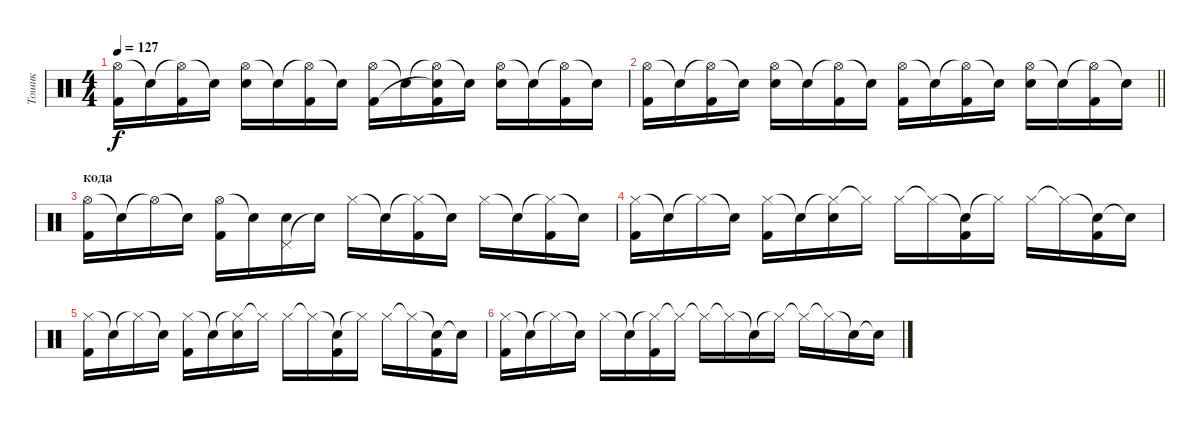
\track ("Тошик" "Тошик") {instrument percussion}
\staff {score}
\articulation defaults
\ts (4 4)
\tempo 127
\clef neutral
\ks c
("Hi-Hat (open)" "Kick (hit) 2").16{dy f} "Snare (hit)"{t}.16 ("Hi-Hat (open)"{t} "Kick (hit) 2").16 "Snare (hit)"{t}.16 ("Hi-Hat (open)" "Snare (hit) 2").16 "Snare (hit)"{t}.16 ("Hi-Hat (open)"{t} "Kick (hit) 2").16 "Snare (hit)"{t}.16 ("Hi-Hat (open)" "Kick (hit) 2").16 "Snare (hit)"{t}.16 ("Hi-Hat (open)"{t} "Snare (hit)"{t} "Kick (hit) 2").16 "Snare (hit)"{t}.16 ("Hi-Hat (open)" "Snare (hit) 2").16 "Snare (hit)"{t}.16 ("Hi-Hat (open)"{t} "Kick (hit) 2").16 "Snare (hit)"{t}.16 |
\barLineRight lightlight
("Hi-Hat (open)" "Kick (hit) 2").16 "Snare (hit)"{t}.16 ("Hi-Hat (open)"{t} "Kick (hit) 2").16 "Snare (hit)"{t}.16 ("Hi-Hat (open)" "Snare (hit) 2").16 "Snare (hit)"{t}.16 ("Hi-Hat (open)"{t} "Kick (hit) 2").16 "Snare (hit)"{t}.16 ("Hi-Hat (open)" "Kick (hit) 2").16 "Snare (hit)"{t}.16 ("Hi-Hat (open)"{t} "Kick (hit) 2").16 "Snare (hit)"{t}.16 ("Hi-Hat (open)" "Snare (hit) 2").16 "Snare (hit)"{t}.16 ("Hi-Hat (open)"{t} "Kick (hit) 2").16 "Snare (hit)"{t}.16 |
\section ("" "кода")
("Hi-Hat (open)" "Kick (hit) 2").16 "Snare (hit)"{t}.16 "Hi-Hat (open)"{t}.16 "Snare (hit)"{t}.16 ("Hi-Hat (open)" "Kick (hit) 2").16 "Snare (hit)"{t}.16 ("Pedal Hi-Hat (hit)" "Snare (hit) 2").16 "Snare (hit)"{t}.16 "Hi-Hat (closed)".16 "Snare (hit)"{t}.16 ("Hi-Hat (closed)"{t} "Kick (hit) 2").16 "Snare (hit)"{t}.16 "Hi-Hat (closed)".16 "Snare (hit)"{t}.16 ("Hi-Hat (closed)"{t} "Kick (hit) 2").16 "Snare (hit)"{t}.16 |
("Hi-Hat (closed)" "Kick (hit) 2").16 "Snare (hit)"{t}.16 "Hi-Hat (closed)"{t}.16 "Snare (hit)"{t}.16 ("Hi-Hat (closed)" "Kick (hit) 2").16 "Snare (hit)"{t}.16 ("Hi-Hat (closed)"{t} "Snare (hit) 2").16 "Hi-Hat (closed)"{t}.16 "Hi-Hat (closed)".16 "Hi-Hat (closed)"{t}.16 ("Snare (hit)"{t} "Kick (hit) 2").16 "Hi-Hat (closed)"{t}.16 "Hi-Hat (closed)".16 "Hi-Hat (closed)"{t}.16 ("Snare (hit)"{t} "Kick (hit) 2").16 "Snare (hit)"{t}.16 |
("Hi-Hat (closed)" "Kick (hit) 2").16 "Snare (hit)"{t}.16 "Hi-Hat (closed)"{t}.16 "Snare (hit)"{t}.16 ("Hi-Hat (closed)" "Kick (hit) 2").16 "Snare (hit)"{t}.16 ("Hi-Hat (closed)"{t} "Snare (hit) 2").16 "Hi-Hat (closed)"{t}.16 "Hi-Hat (closed)".16 "Hi-Hat (closed)"{t}.16 ("Snare (hit)"{t} "Kick (hit) 2").16 "Hi-Hat (closed)"{t}.16 "Hi-Hat (closed)".16 "Hi-Hat (closed)"{t}.16 ("Snare (hit)"{t} "Kick (hit) 2").16 "Snare (hit)"{t}.16 |
("Hi-Hat (closed)" "Kick (hit) 2").16 "Snare (hit)"{t}.16 "Hi-Hat (closed)"{t}.16 "Snare (hit)"{t}.16 "Hi-Hat (closed)".16 "Snare (hit)"{t}.16 ("Hi-Hat (closed)"{t} "Kick (hit) 2").16 "Hi-Hat (closed)"{t}.16 "Hi-Hat (closed)"{t}.16 "Hi-Hat (closed)"{t}.16 "Snare (hit)"{t}.16 "Hi-Hat (closed)"{t}.16 "Hi-Hat (closed)"{t}.16 "Hi-Hat (closed)"{t}.16 "Snare (hit)"{t}.16 "Snare (hit)"{t}.16
